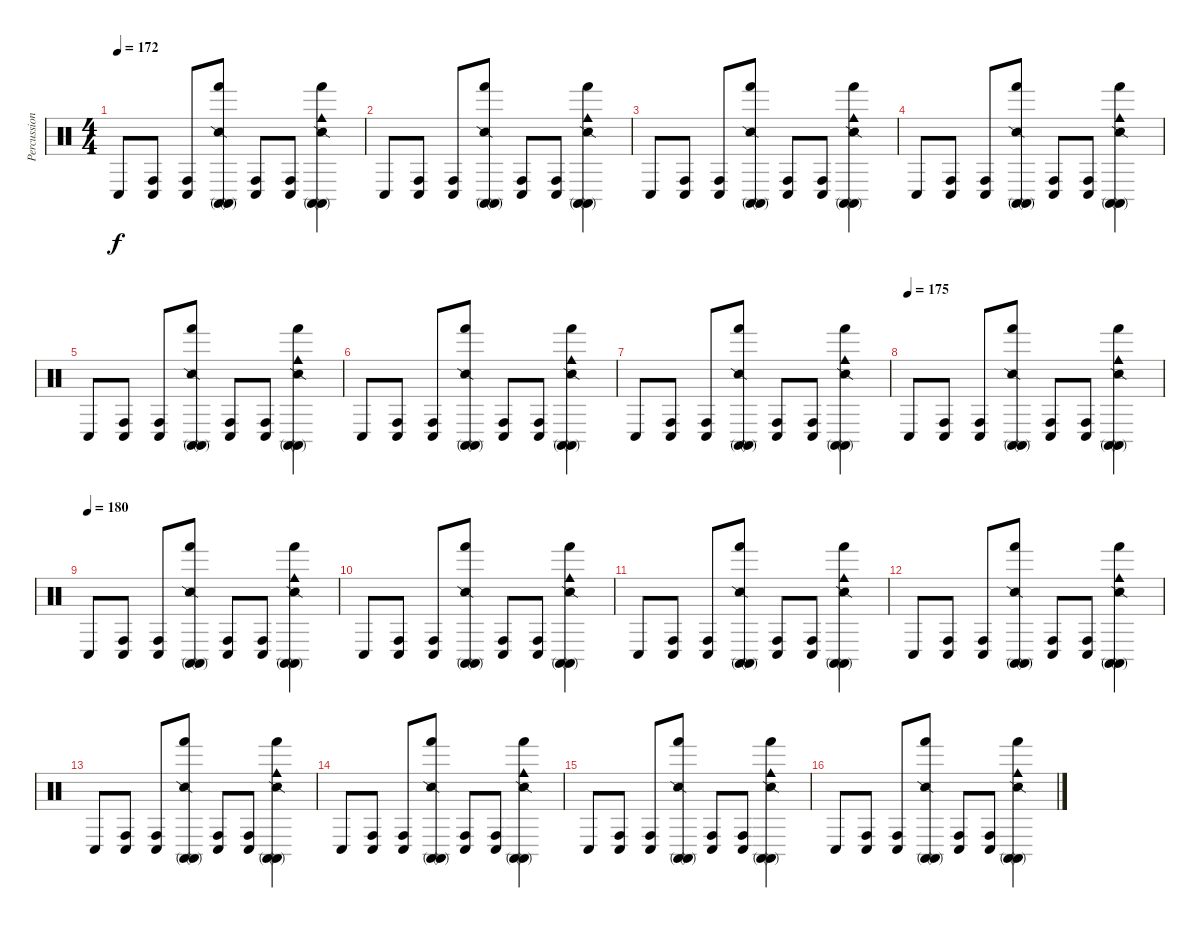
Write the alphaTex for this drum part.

\track ("Percussion" "Percussion") {instrument percussion}
\staff {score}
\articulation defaults
\ts (4 4)
\tempo 172
\clef neutral
\ks c "Conga low (hit)".8{dy f}
("Conga high (hit)" "Conga low (hit)").8 ("Conga high (hit)" "Conga low (hit)").8 ("Snare (side stick) 2" "Hand (hit)" "Conga high (mute)" "Conga high (mute)").8 ("Conga high (hit)" "Conga low (hit)").8 ("Conga high (hit)" "Conga low (hit)").8 ("Snare (side stick) 2" "Hand (hit)" "Cowbell medium (hit)" "Conga high (mute)" "Conga high (mute)").4 |
"Conga low (hit)".8 ("Conga high (hit)" "Conga low (hit)").8 ("Conga high (hit)" "Conga low (hit)").8 ("Snare (side stick) 2" "Hand (hit)" "Conga high (mute)" "Conga high (mute)").8 ("Conga high (hit)" "Conga low (hit)").8 ("Conga high (hit)" "Conga low (hit)").8 ("Snare (side stick) 2" "Hand (hit)" "Cowbell medium (hit)" "Conga high (mute)" "Conga high (mute)").4 |
"Conga low (hit)".8 ("Conga high (hit)" "Conga low (hit)").8 ("Conga high (hit)" "Conga low (hit)").8 ("Snare (side stick) 2" "Hand (hit)" "Conga high (mute)" "Conga high (mute)").8 ("Conga high (hit)" "Conga low (hit)").8 ("Conga high (hit)" "Conga low (hit)").8 ("Snare (side stick) 2" "Hand (hit)" "Cowbell medium (hit)" "Conga high (mute)" "Conga high (mute)").4 |
"Conga low (hit)".8 ("Conga high (hit)" "Conga low (hit)").8 ("Conga high (hit)" "Conga low (hit)").8 ("Snare (side stick) 2" "Hand (hit)" "Conga high (mute)" "Conga high (mute)").8 ("Conga high (hit)" "Conga low (hit)").8 ("Conga high (hit)" "Conga low (hit)").8 ("Snare (side stick) 2" "Hand (hit)" "Cowbell medium (hit)" "Conga high (mute)" "Conga high (mute)").4 |
"Conga low (hit)".8 ("Conga high (hit)" "Conga low (hit)").8 ("Conga high (hit)" "Conga low (hit)").8 ("Snare (side stick) 2" "Hand (hit)" "Conga high (mute)" "Conga high (mute)").8 ("Conga high (hit)" "Conga low (hit)").8 ("Conga high (hit)" "Conga low (hit)").8 ("Snare (side stick) 2" "Hand (hit)" "Cowbell medium (hit)" "Conga high (mute)" "Conga high (mute)").4 |
"Conga low (hit)".8 ("Conga high (hit)" "Conga low (hit)").8 ("Conga high (hit)" "Conga low (hit)").8 ("Snare (side stick) 2" "Hand (hit)" "Conga high (mute)" "Conga high (mute)").8 ("Conga high (hit)" "Conga low (hit)").8 ("Conga high (hit)" "Conga low (hit)").8 ("Snare (side stick) 2" "Hand (hit)" "Cowbell medium (hit)" "Conga high (mute)" "Conga high (mute)").4 |
"Conga low (hit)".8 ("Conga high (hit)" "Conga low (hit)").8 ("Conga high (hit)" "Conga low (hit)").8 ("Snare (side stick) 2" "Hand (hit)" "Conga high (mute)" "Conga high (mute)").8 ("Conga high (hit)" "Conga low (hit)").8 ("Conga high (hit)" "Conga low (hit)").8 ("Snare (side stick) 2" "Hand (hit)" "Cowbell medium (hit)" "Conga high (mute)" "Conga high (mute)").4 |
\tempo (175)
"Conga low (hit)".8 ("Conga high (hit)" "Conga low (hit)").8 ("Conga high (hit)" "Conga low (hit)").8 ("Snare (side stick) 2" "Hand (hit)" "Conga high (mute)" "Conga high (mute)").8 ("Conga high (hit)" "Conga low (hit)").8 ("Conga high (hit)" "Conga low (hit)").8 ("Snare (side stick) 2" "Hand (hit)" "Cowbell medium (hit)" "Conga high (mute)" "Conga high (mute)").4 |
\tempo (180)
"Conga low (hit)".8 ("Conga high (hit)" "Conga low (hit)").8 ("Conga high (hit)" "Conga low (hit)").8 ("Snare (side stick) 2" "Hand (hit)" "Conga high (mute)" "Conga high (mute)").8 ("Conga high (hit)" "Conga low (hit)").8 ("Conga high (hit)" "Conga low (hit)").8 ("Snare (side stick) 2" "Hand (hit)" "Cowbell medium (hit)" "Conga high (mute)" "Conga high (mute)").4 |
"Conga low (hit)".8 ("Conga high (hit)" "Conga low (hit)").8 ("Conga high (hit)" "Conga low (hit)").8 ("Snare (side stick) 2" "Hand (hit)" "Conga high (mute)" "Conga high (mute)").8 ("Conga high (hit)" "Conga low (hit)").8 ("Conga high (hit)" "Conga low (hit)").8 ("Snare (side stick) 2" "Hand (hit)" "Cowbell medium (hit)" "Conga high (mute)" "Conga high (mute)").4 |
"Conga low (hit)".8 ("Conga high (hit)" "Conga low (hit)").8 ("Conga high (hit)" "Conga low (hit)").8 ("Snare (side stick) 2" "Hand (hit)" "Conga high (mute)" "Conga high (mute)").8 ("Conga high (hit)" "Conga low (hit)").8 ("Conga high (hit)" "Conga low (hit)").8 ("Snare (side stick) 2" "Hand (hit)" "Cowbell medium (hit)" "Conga high (mute)" "Conga high (mute)").4 |
"Conga low (hit)".8 ("Conga high (hit)" "Conga low (hit)").8 ("Conga high (hit)" "Conga low (hit)").8 ("Snare (side stick) 2" "Hand (hit)" "Conga high (mute)" "Conga high (mute)").8 ("Conga high (hit)" "Conga low (hit)").8 ("Conga high (hit)" "Conga low (hit)").8 ("Snare (side stick) 2" "Hand (hit)" "Cowbell medium (hit)" "Conga high (mute)" "Conga high (mute)").4 |
"Conga low (hit)".8 ("Conga high (hit)" "Conga low (hit)").8 ("Conga high (hit)" "Conga low (hit)").8 ("Snare (side stick) 2" "Hand (hit)" "Conga high (mute)" "Conga high (mute)").8 ("Conga high (hit)" "Conga low (hit)").8 ("Conga high (hit)" "Conga low (hit)").8 ("Snare (side stick) 2" "Hand (hit)" "Cowbell medium (hit)" "Conga high (mute)" "Conga high (mute)").4 |
"Conga low (hit)".8 ("Conga high (hit)" "Conga low (hit)").8 ("Conga high (hit)" "Conga low (hit)").8 ("Snare (side stick) 2" "Hand (hit)" "Conga high (mute)" "Conga high (mute)").8 ("Conga high (hit)" "Conga low (hit)").8 ("Conga high (hit)" "Conga low (hit)").8 ("Snare (side stick) 2" "Hand (hit)" "Cowbell medium (hit)" "Conga high (mute)" "Conga high (mute)").4 |
"Conga low (hit)".8 ("Conga high (hit)" "Conga low (hit)").8 ("Conga high (hit)" "Conga low (hit)").8 ("Snare (side stick) 2" "Hand (hit)" "Conga high (mute)" "Conga high (mute)").8 ("Conga high (hit)" "Conga low (hit)").8 ("Conga high (hit)" "Conga low (hit)").8 ("Snare (side stick) 2" "Hand (hit)" "Cowbell medium (hit)" "Conga high (mute)" "Conga high (mute)").4 |
"Conga low (hit)".8 ("Conga high (hit)" "Conga low (hit)").8 ("Conga high (hit)" "Conga low (hit)").8 ("Snare (side stick) 2" "Hand (hit)" "Conga high (mute)" "Conga high (mute)").8 ("Conga high (hit)" "Conga low (hit)").8 ("Conga high (hit)" "Conga low (hit)").8 ("Snare (side stick) 2" "Hand (hit)" "Cowbell medium (hit)" "Conga high (mute)" "Conga high (mute)").4
